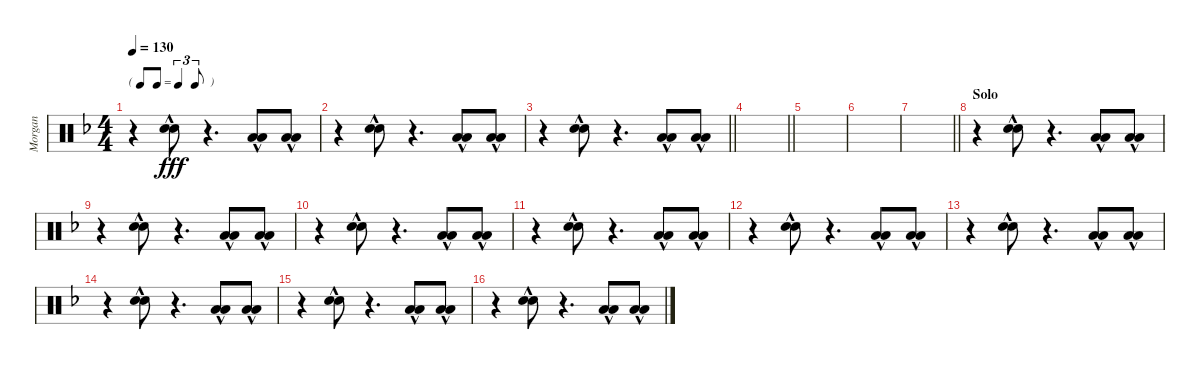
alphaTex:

\track ("Morgan" "Morgan") {instrument percussion}
\staff {score}
\articulation defaults
\ts (4 4)
\tf triplet8th
\tempo 130
\clef neutral
\ks dminor
r.4{dy fff} ("Snare (hit) 2"{hac} "Snare (hit) 2"{hac}).8 r.4{d} ("Low Tom (hit)"{hac} "Low Tom (hit)"{hac}).8 ("Low Tom (hit)"{hac} "Low Tom (hit)"{hac}).8 |
r.4 ("Snare (hit) 2"{hac} "Snare (hit) 2"{hac}).8 r.4{d} ("Low Tom (hit)"{hac} "Low Tom (hit)"{hac}).8 ("Low Tom (hit)"{hac} "Low Tom (hit)"{hac}).8 |
\barLineRight lightlight
r.4 ("Snare (hit) 2"{hac} "Snare (hit) 2"{hac}).8 r.4{d} ("Low Tom (hit)"{hac} "Low Tom (hit)"{hac}).8 ("Low Tom (hit)"{hac} "Low Tom (hit)"{hac}).8 |
\section ("" "")
\barLineRight lightlight
|
\section ("" "")
|
|
\barLineRight lightlight
|
\section ("" "Solo")
r.4 ("Snare (hit) 2"{hac} "Snare (hit) 2"{hac}).8 r.4{d} ("Low Tom (hit)"{hac} "Low Tom (hit)"{hac}).8 ("Low Tom (hit)"{hac} "Low Tom (hit)"{hac}).8 |
r.4 ("Snare (hit) 2"{hac} "Snare (hit) 2"{hac}).8 r.4{d} ("Low Tom (hit)"{hac} "Low Tom (hit)"{hac}).8 ("Low Tom (hit)"{hac} "Low Tom (hit)"{hac}).8 |
r.4 ("Snare (hit) 2"{hac} "Snare (hit) 2"{hac}).8 r.4{d} ("Low Tom (hit)"{hac} "Low Tom (hit)"{hac}).8 ("Low Tom (hit)"{hac} "Low Tom (hit)"{hac}).8 |
r.4 ("Snare (hit) 2"{hac} "Snare (hit) 2"{hac}).8 r.4{d} ("Low Tom (hit)"{hac} "Low Tom (hit)"{hac}).8 ("Low Tom (hit)"{hac} "Low Tom (hit)"{hac}).8 |
r.4 ("Snare (hit) 2"{hac} "Snare (hit) 2"{hac}).8 r.4{d} ("Low Tom (hit)"{hac} "Low Tom (hit)"{hac}).8 ("Low Tom (hit)"{hac} "Low Tom (hit)"{hac}).8 |
r.4 ("Snare (hit) 2"{hac} "Snare (hit) 2"{hac}).8 r.4{d} ("Low Tom (hit)"{hac} "Low Tom (hit)"{hac}).8 ("Low Tom (hit)"{hac} "Low Tom (hit)"{hac}).8 |
r.4 ("Snare (hit) 2"{hac} "Snare (hit) 2"{hac}).8 r.4{d} ("Low Tom (hit)"{hac} "Low Tom (hit)"{hac}).8 ("Low Tom (hit)"{hac} "Low Tom (hit)"{hac}).8 |
r.4 ("Snare (hit) 2"{hac} "Snare (hit) 2"{hac}).8 r.4{d} ("Low Tom (hit)"{hac} "Low Tom (hit)"{hac}).8 ("Low Tom (hit)"{hac} "Low Tom (hit)"{hac}).8 |
r.4 ("Snare (hit) 2"{hac} "Snare (hit) 2"{hac}).8 r.4{d} ("Low Tom (hit)"{hac} "Low Tom (hit)"{hac}).8 ("Low Tom (hit)"{hac} "Low Tom (hit)"{hac}).8
